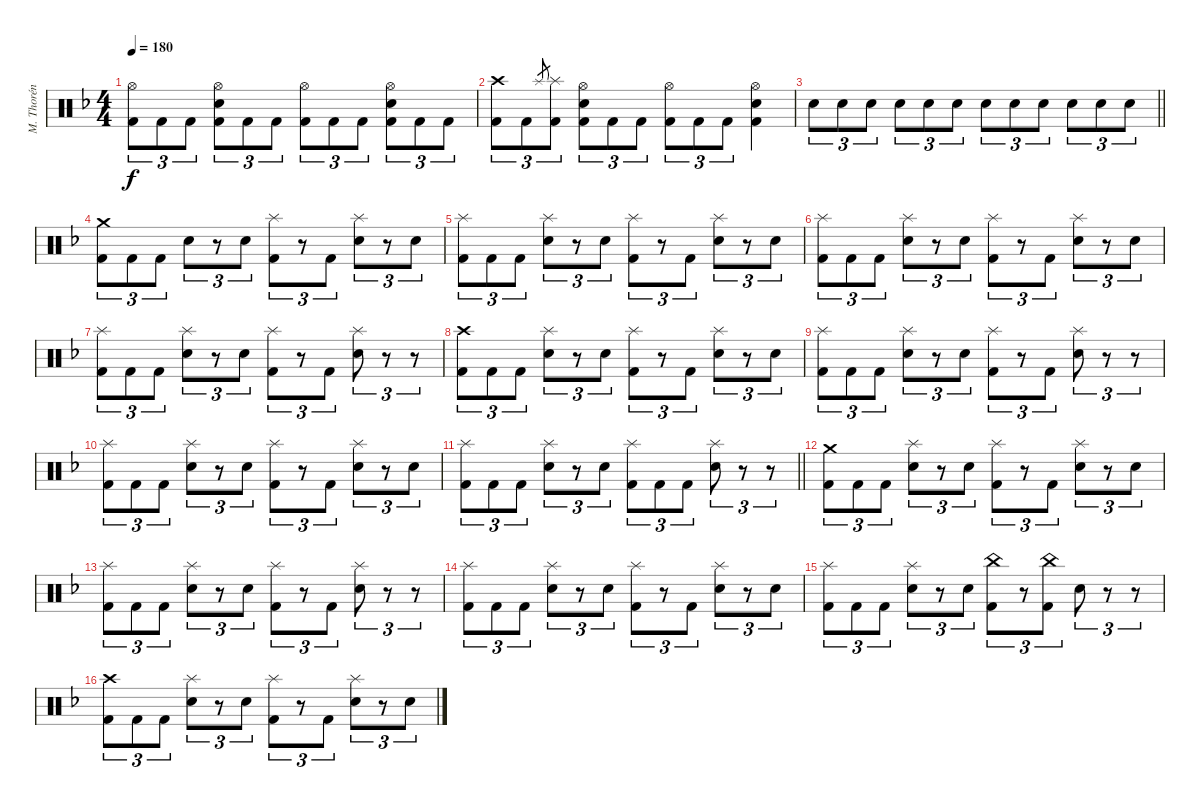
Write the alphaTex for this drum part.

\track ("M. Thorén (Drums)" "M. Thorén ") {instrument percussion}
\staff {score}
\articulation defaults
\ts (4 4)
\tempo 180
\clef neutral
\ks dminor
("Hi-Hat (open)" "Kick (hit) 2").8{tu (3 2) dy f} "Kick (hit) 2".8{tu (3 2)} "Kick (hit) 2".8{tu (3 2)} ("Hi-Hat (open)" "Electric Snare (hit)" "Kick (hit) 2").8{tu (3 2)} "Kick (hit) 2".8{tu (3 2)} "Kick (hit) 2".8{tu (3 2)} ("Hi-Hat (open)" "Kick (hit) 2").8{tu (3 2)} "Kick (hit) 2".8{tu (3 2)} "Kick (hit) 2".8{tu (3 2)} ("Hi-Hat (open)" "Electric Snare (hit)" "Kick (hit) 2").8{tu (3 2)} "Kick (hit) 2".8{tu (3 2)} "Kick (hit) 2".8{tu (3 2)} |
("Crash high (hit)" "Kick (hit) 2").8{tu (3 2)} "Kick (hit) 2".8{tu (3 2)} "Splash (hit)".8{gr} ("Splash (hit)" "Kick (hit) 2").8{tu (3 2)} ("Hi-Hat (open)" "Electric Snare (hit)" "Kick (hit) 2").8{tu (3 2)} "Kick (hit) 2".8{tu (3 2)} "Kick (hit) 2".8{tu (3 2)} ("Hi-Hat (open)" "Kick (hit) 2").8{tu (3 2)} "Kick (hit) 2".8{tu (3 2)} "Kick (hit) 2".8{tu (3 2)} ("Hi-Hat (open)" "Electric Snare (hit)" "Kick (hit) 2").4 |
\barLineRight lightlight "Electric Snare (hit)".8{tu (3 2)} "Electric Snare (hit)".8{tu (3 2)} "Electric Snare (hit)".8{tu (3 2)} "Electric Snare (hit)".8{tu (3 2)} "Electric Snare (hit)".8{tu (3 2)} "Electric Snare (hit)".8{tu (3 2)} "Electric Snare (hit)".8{tu (3 2)} "Electric Snare (hit)".8{tu (3 2)} "Electric Snare (hit)".8{tu (3 2)} "Electric Snare (hit)".8{tu (3 2)} "Electric Snare (hit)".8{tu (3 2)} "Electric Snare (hit)".8{tu (3 2)}
|
("Crash medium (hit)" "Kick (hit) 2").8{tu (3 2)} "Kick (hit) 2".8{tu (3 2)} "Kick (hit) 2".8{tu (3 2)} "Electric Snare (hit)".8{tu (3 2)} r.8{tu (3 2)} "Electric Snare (hit)".8{tu (3 2)} ("Splash (hit)" "Kick (hit) 2").8{tu (3 2)} r.8{tu (3 2)} "Kick (hit) 2".8{tu (3 2)} ("Splash (hit)" "Electric Snare (hit)").8{tu (3 2)} r.8{tu (3 2)} "Electric Snare (hit)".8{tu (3 2)} |
("Splash (hit)" "Kick (hit) 2").8{tu (3 2)} "Kick (hit) 2".8{tu (3 2)} "Kick (hit) 2".8{tu (3 2)} ("Splash (hit)" "Electric Snare (hit)").8{tu (3 2)} r.8{tu (3 2)} "Electric Snare (hit)".8{tu (3 2)} ("Splash (hit)" "Kick (hit) 2").8{tu (3 2)} r.8{tu (3 2)} "Kick (hit) 2".8{tu (3 2)} ("Splash (hit)" "Electric Snare (hit)").8{tu (3 2)} r.8{tu (3 2)} "Electric Snare (hit)".8{tu (3 2)} |
("Splash (hit)" "Kick (hit) 2").8{tu (3 2)} "Kick (hit) 2".8{tu (3 2)} "Kick (hit) 2".8{tu (3 2)} ("Splash (hit)" "Electric Snare (hit)").8{tu (3 2)} r.8{tu (3 2)} "Electric Snare (hit)".8{tu (3 2)} ("Splash (hit)" "Kick (hit) 2").8{tu (3 2)} r.8{tu (3 2)} "Kick (hit) 2".8{tu (3 2)} ("Splash (hit)" "Electric Snare (hit)").8{tu (3 2)} r.8{tu (3 2)} "Electric Snare (hit)".8{tu (3 2)} |
("Splash (hit)" "Kick (hit) 2").8{tu (3 2)} "Kick (hit) 2".8{tu (3 2)} "Kick (hit) 2".8{tu (3 2)} ("Splash (hit)" "Electric Snare (hit)").8{tu (3 2)} r.8{tu (3 2)} "Electric Snare (hit)".8{tu (3 2)} ("Splash (hit)" "Kick (hit) 2").8{tu (3 2)} r.8{tu (3 2)} "Kick (hit) 2".8{tu (3 2)} ("Splash (hit)" "Electric Snare (hit)").8{tu (3 2)} r.8{tu (3 2)} r.8{tu (3 2)} |
("Crash high (hit)" "Kick (hit) 2").8{tu (3 2)} "Kick (hit) 2".8{tu (3 2)} "Kick (hit) 2".8{tu (3 2)} ("Splash (hit)" "Electric Snare (hit)").8{tu (3 2)} r.8{tu (3 2)} "Electric Snare (hit)".8{tu (3 2)} ("Splash (hit)" "Kick (hit) 2").8{tu (3 2)} r.8{tu (3 2)} "Kick (hit) 2".8{tu (3 2)} ("Splash (hit)" "Electric Snare (hit)").8{tu (3 2)} r.8{tu (3 2)} "Electric Snare (hit)".8{tu (3 2)} |
("Splash (hit)" "Kick (hit) 2").8{tu (3 2)} "Kick (hit) 2".8{tu (3 2)} "Kick (hit) 2".8{tu (3 2)} ("Splash (hit)" "Electric Snare (hit)").8{tu (3 2)} r.8{tu (3 2)} "Electric Snare (hit)".8{tu (3 2)} ("Splash (hit)" "Kick (hit) 2").8{tu (3 2)} r.8{tu (3 2)} "Kick (hit) 2".8{tu (3 2)} ("Splash (hit)" "Electric Snare (hit)").8{tu (3 2)} r.8{tu (3 2)} r.8{tu (3 2)} |
("Splash (hit)" "Kick (hit) 2").8{tu (3 2)} "Kick (hit) 2".8{tu (3 2)} "Kick (hit) 2".8{tu (3 2)} ("Splash (hit)" "Electric Snare (hit)").8{tu (3 2)} r.8{tu (3 2)} "Electric Snare (hit)".8{tu (3 2)} ("Splash (hit)" "Kick (hit) 2").8{tu (3 2)} r.8{tu (3 2)} "Kick (hit) 2".8{tu (3 2)} ("Splash (hit)" "Electric Snare (hit)").8{tu (3 2)} r.8{tu (3 2)} "Electric Snare (hit)".8{tu (3 2)} |
\barLineRight lightlight
("Splash (hit)" "Kick (hit) 2").8{tu (3 2)} "Kick (hit) 2".8{tu (3 2)} "Kick (hit) 2".8{tu (3 2)} ("Splash (hit)" "Electric Snare (hit)").8{tu (3 2)} r.8{tu (3 2)} "Electric Snare (hit)".8{tu (3 2)} ("Splash (hit)" "Kick (hit) 2").8{tu (3 2)} "Kick (hit) 2".8{tu (3 2)} "Kick (hit) 2".8{tu (3 2)} ("Splash (hit)" "Electric Snare (hit)").8{tu (3 2)} r.8{tu (3 2)} r.8{tu (3 2)} |
("Crash medium (hit)" "Kick (hit) 2").8{tu (3 2)} "Kick (hit) 2".8{tu (3 2)} "Kick (hit) 2".8{tu (3 2)} ("Splash (hit)" "Electric Snare (hit)").8{tu (3 2)} r.8{tu (3 2)} "Electric Snare (hit)".8{tu (3 2)} ("Splash (hit)" "Kick (hit) 2").8{tu (3 2)} r.8{tu (3 2)} "Kick (hit) 2".8{tu (3 2)} ("Splash (hit)" "Electric Snare (hit)").8{tu (3 2)} r.8{tu (3 2)} "Electric Snare (hit)".8{tu (3 2)} |
("Splash (hit)" "Kick (hit) 2").8{tu (3 2)} "Kick (hit) 2".8{tu (3 2)} "Kick (hit) 2".8{tu (3 2)} ("Splash (hit)" "Electric Snare (hit)").8{tu (3 2)} r.8{tu (3 2)} "Electric Snare (hit)".8{tu (3 2)} ("Splash (hit)" "Kick (hit) 2").8{tu (3 2)} r.8{tu (3 2)} "Kick (hit) 2".8{tu (3 2)} ("Splash (hit)" "Electric Snare (hit)").8{tu (3 2)} r.8{tu (3 2)} r.8{tu (3 2)} |
("Splash (hit)" "Kick (hit) 2").8{tu (3 2)} "Kick (hit) 2".8{tu (3 2)} "Kick (hit) 2".8{tu (3 2)} ("Splash (hit)" "Electric Snare (hit)").8{tu (3 2)} r.8{tu (3 2)} "Electric Snare (hit)".8{tu (3 2)} ("Splash (hit)" "Kick (hit) 2").8{tu (3 2)} r.8{tu (3 2)} "Kick (hit) 2".8{tu (3 2)} ("Splash (hit)" "Electric Snare (hit)").8{tu (3 2)} r.8{tu (3 2)} "Electric Snare (hit)".8{tu (3 2)} |
("Splash (hit)" "Kick (hit) 2").8{tu (3 2)} "Kick (hit) 2".8{tu (3 2)} "Kick (hit) 2".8{tu (3 2)} ("Splash (hit)" "Electric Snare (hit)").8{tu (3 2)} r.8{tu (3 2)} "Electric Snare (hit)".8{tu (3 2)} ("China (hit)" "Kick (hit) 2").8{tu (3 2)} r.8{tu (3 2)} ("China (hit)" "Kick (hit) 2").8{tu (3 2)} "Electric Snare (hit)".8{tu (3 2)} r.8{tu (3 2)} r.8{tu (3 2)} |
("Crash high (hit)" "Kick (hit) 2").8{tu (3 2)} "Kick (hit) 2".8{tu (3 2)} "Kick (hit) 2".8{tu (3 2)} ("Splash (hit)" "Electric Snare (hit)").8{tu (3 2)} r.8{tu (3 2)} "Electric Snare (hit)".8{tu (3 2)} ("Splash (hit)" "Kick (hit) 2").8{tu (3 2)} r.8{tu (3 2)} "Kick (hit) 2".8{tu (3 2)} ("Splash (hit)" "Electric Snare (hit)").8{tu (3 2)} r.8{tu (3 2)} "Electric Snare (hit)".8{tu (3 2)}
